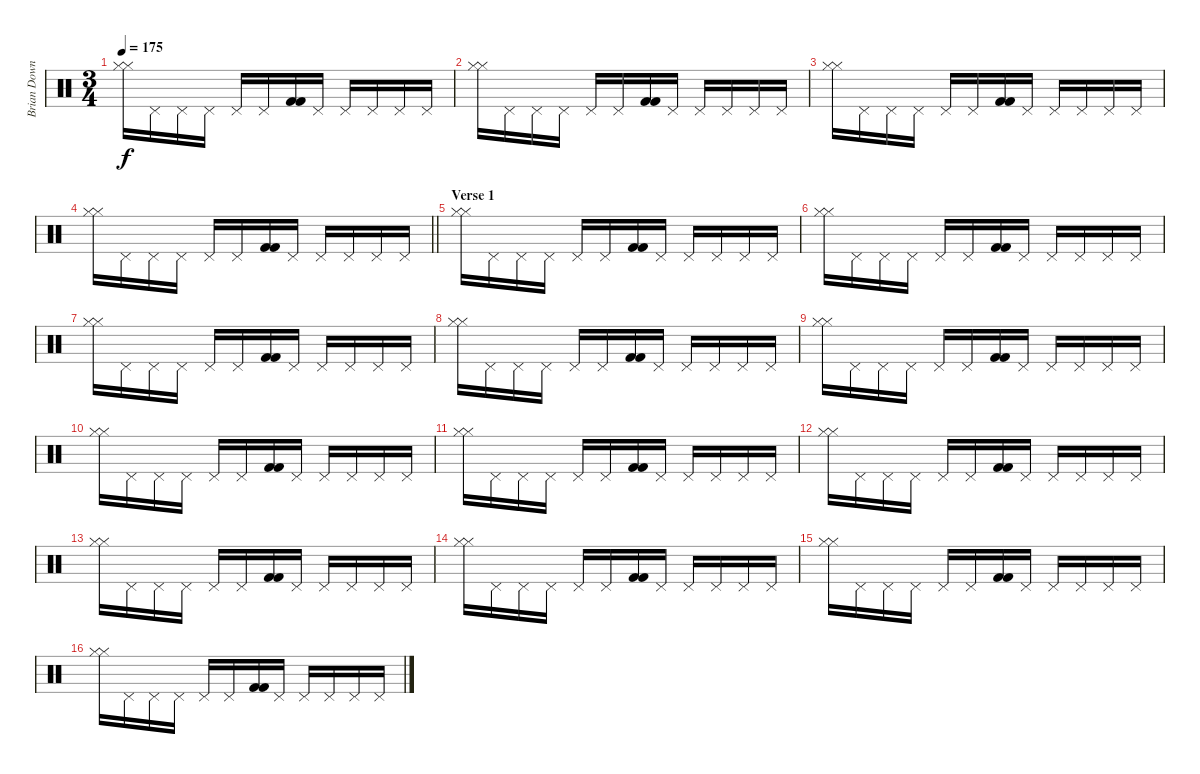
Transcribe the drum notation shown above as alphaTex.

\track ("Brian Downey" "Brian Down") {instrument percussion}
\staff {score}
\articulation defaults
\ts (3 4)
\tempo 175
\clef neutral
\ks c
("Hi-Hat (closed)" "Hi-Hat (closed)").16{dy f} "Pedal Hi-Hat (hit)".16 "Pedal Hi-Hat (hit)".16 "Pedal Hi-Hat (hit)".16 "Pedal Hi-Hat (hit)".16 "Pedal Hi-Hat (hit)".16 ("Kick (hit) 2" "Kick (hit) 2").16 "Pedal Hi-Hat (hit)".16 "Pedal Hi-Hat (hit)".16 "Pedal Hi-Hat (hit)".16 "Pedal Hi-Hat (hit)".16 "Pedal Hi-Hat (hit)".16 |
("Hi-Hat (closed)" "Hi-Hat (closed)").16 "Pedal Hi-Hat (hit)".16 "Pedal Hi-Hat (hit)".16 "Pedal Hi-Hat (hit)".16 "Pedal Hi-Hat (hit)".16 "Pedal Hi-Hat (hit)".16 ("Kick (hit) 2" "Kick (hit) 2").16 "Pedal Hi-Hat (hit)".16 "Pedal Hi-Hat (hit)".16 "Pedal Hi-Hat (hit)".16 "Pedal Hi-Hat (hit)".16 "Pedal Hi-Hat (hit)".16 |
("Hi-Hat (closed)" "Hi-Hat (closed)").16 "Pedal Hi-Hat (hit)".16 "Pedal Hi-Hat (hit)".16 "Pedal Hi-Hat (hit)".16 "Pedal Hi-Hat (hit)".16 "Pedal Hi-Hat (hit)".16 ("Kick (hit) 2" "Kick (hit) 2").16 "Pedal Hi-Hat (hit)".16 "Pedal Hi-Hat (hit)".16 "Pedal Hi-Hat (hit)".16 "Pedal Hi-Hat (hit)".16 "Pedal Hi-Hat (hit)".16 |
\barLineRight lightlight
("Hi-Hat (closed)" "Hi-Hat (closed)").16 "Pedal Hi-Hat (hit)".16 "Pedal Hi-Hat (hit)".16 "Pedal Hi-Hat (hit)".16 "Pedal Hi-Hat (hit)".16 "Pedal Hi-Hat (hit)".16 ("Kick (hit) 2" "Kick (hit) 2").16 "Pedal Hi-Hat (hit)".16 "Pedal Hi-Hat (hit)".16 "Pedal Hi-Hat (hit)".16 "Pedal Hi-Hat (hit)".16 "Pedal Hi-Hat (hit)".16 |
\section ("" "Verse 1")
("Hi-Hat (closed)" "Hi-Hat (closed)").16 "Pedal Hi-Hat (hit)".16 "Pedal Hi-Hat (hit)".16 "Pedal Hi-Hat (hit)".16 "Pedal Hi-Hat (hit)".16 "Pedal Hi-Hat (hit)".16 ("Kick (hit) 2" "Kick (hit) 2").16 "Pedal Hi-Hat (hit)".16 "Pedal Hi-Hat (hit)".16 "Pedal Hi-Hat (hit)".16 "Pedal Hi-Hat (hit)".16 "Pedal Hi-Hat (hit)".16 |
("Hi-Hat (closed)" "Hi-Hat (closed)").16 "Pedal Hi-Hat (hit)".16 "Pedal Hi-Hat (hit)".16 "Pedal Hi-Hat (hit)".16 "Pedal Hi-Hat (hit)".16 "Pedal Hi-Hat (hit)".16 ("Kick (hit) 2" "Kick (hit) 2").16 "Pedal Hi-Hat (hit)".16 "Pedal Hi-Hat (hit)".16 "Pedal Hi-Hat (hit)".16 "Pedal Hi-Hat (hit)".16 "Pedal Hi-Hat (hit)".16 |
("Hi-Hat (closed)" "Hi-Hat (closed)").16 "Pedal Hi-Hat (hit)".16 "Pedal Hi-Hat (hit)".16 "Pedal Hi-Hat (hit)".16 "Pedal Hi-Hat (hit)".16 "Pedal Hi-Hat (hit)".16 ("Kick (hit) 2" "Kick (hit) 2").16 "Pedal Hi-Hat (hit)".16 "Pedal Hi-Hat (hit)".16 "Pedal Hi-Hat (hit)".16 "Pedal Hi-Hat (hit)".16 "Pedal Hi-Hat (hit)".16 |
("Hi-Hat (closed)" "Hi-Hat (closed)").16 "Pedal Hi-Hat (hit)".16 "Pedal Hi-Hat (hit)".16 "Pedal Hi-Hat (hit)".16 "Pedal Hi-Hat (hit)".16 "Pedal Hi-Hat (hit)".16 ("Kick (hit) 2" "Kick (hit) 2").16 "Pedal Hi-Hat (hit)".16 "Pedal Hi-Hat (hit)".16 "Pedal Hi-Hat (hit)".16 "Pedal Hi-Hat (hit)".16 "Pedal Hi-Hat (hit)".16 |
("Hi-Hat (closed)" "Hi-Hat (closed)").16 "Pedal Hi-Hat (hit)".16 "Pedal Hi-Hat (hit)".16 "Pedal Hi-Hat (hit)".16 "Pedal Hi-Hat (hit)".16 "Pedal Hi-Hat (hit)".16 ("Kick (hit) 2" "Kick (hit) 2").16 "Pedal Hi-Hat (hit)".16 "Pedal Hi-Hat (hit)".16 "Pedal Hi-Hat (hit)".16 "Pedal Hi-Hat (hit)".16 "Pedal Hi-Hat (hit)".16 |
("Hi-Hat (closed)" "Hi-Hat (closed)").16 "Pedal Hi-Hat (hit)".16 "Pedal Hi-Hat (hit)".16 "Pedal Hi-Hat (hit)".16 "Pedal Hi-Hat (hit)".16 "Pedal Hi-Hat (hit)".16 ("Kick (hit) 2" "Kick (hit) 2").16 "Pedal Hi-Hat (hit)".16 "Pedal Hi-Hat (hit)".16 "Pedal Hi-Hat (hit)".16 "Pedal Hi-Hat (hit)".16 "Pedal Hi-Hat (hit)".16 |
("Hi-Hat (closed)" "Hi-Hat (closed)").16 "Pedal Hi-Hat (hit)".16 "Pedal Hi-Hat (hit)".16 "Pedal Hi-Hat (hit)".16 "Pedal Hi-Hat (hit)".16 "Pedal Hi-Hat (hit)".16 ("Kick (hit) 2" "Kick (hit) 2").16 "Pedal Hi-Hat (hit)".16 "Pedal Hi-Hat (hit)".16 "Pedal Hi-Hat (hit)".16 "Pedal Hi-Hat (hit)".16 "Pedal Hi-Hat (hit)".16 |
("Hi-Hat (closed)" "Hi-Hat (closed)").16 "Pedal Hi-Hat (hit)".16 "Pedal Hi-Hat (hit)".16 "Pedal Hi-Hat (hit)".16 "Pedal Hi-Hat (hit)".16 "Pedal Hi-Hat (hit)".16 ("Kick (hit) 2" "Kick (hit) 2").16 "Pedal Hi-Hat (hit)".16 "Pedal Hi-Hat (hit)".16 "Pedal Hi-Hat (hit)".16 "Pedal Hi-Hat (hit)".16 "Pedal Hi-Hat (hit)".16 |
("Hi-Hat (closed)" "Hi-Hat (closed)").16 "Pedal Hi-Hat (hit)".16 "Pedal Hi-Hat (hit)".16 "Pedal Hi-Hat (hit)".16 "Pedal Hi-Hat (hit)".16 "Pedal Hi-Hat (hit)".16 ("Kick (hit) 2" "Kick (hit) 2").16 "Pedal Hi-Hat (hit)".16 "Pedal Hi-Hat (hit)".16 "Pedal Hi-Hat (hit)".16 "Pedal Hi-Hat (hit)".16 "Pedal Hi-Hat (hit)".16 |
("Hi-Hat (closed)" "Hi-Hat (closed)").16 "Pedal Hi-Hat (hit)".16 "Pedal Hi-Hat (hit)".16 "Pedal Hi-Hat (hit)".16 "Pedal Hi-Hat (hit)".16 "Pedal Hi-Hat (hit)".16 ("Kick (hit) 2" "Kick (hit) 2").16 "Pedal Hi-Hat (hit)".16 "Pedal Hi-Hat (hit)".16 "Pedal Hi-Hat (hit)".16 "Pedal Hi-Hat (hit)".16 "Pedal Hi-Hat (hit)".16 |
("Hi-Hat (closed)" "Hi-Hat (closed)").16 "Pedal Hi-Hat (hit)".16 "Pedal Hi-Hat (hit)".16 "Pedal Hi-Hat (hit)".16 "Pedal Hi-Hat (hit)".16 "Pedal Hi-Hat (hit)".16 ("Kick (hit) 2" "Kick (hit) 2").16 "Pedal Hi-Hat (hit)".16 "Pedal Hi-Hat (hit)".16 "Pedal Hi-Hat (hit)".16 "Pedal Hi-Hat (hit)".16 "Pedal Hi-Hat (hit)".16 |
("Hi-Hat (closed)" "Hi-Hat (closed)").16 "Pedal Hi-Hat (hit)".16 "Pedal Hi-Hat (hit)".16 "Pedal Hi-Hat (hit)".16 "Pedal Hi-Hat (hit)".16 "Pedal Hi-Hat (hit)".16 ("Kick (hit) 2" "Kick (hit) 2").16 "Pedal Hi-Hat (hit)".16 "Pedal Hi-Hat (hit)".16 "Pedal Hi-Hat (hit)".16 "Pedal Hi-Hat (hit)".16 "Pedal Hi-Hat (hit)".16
